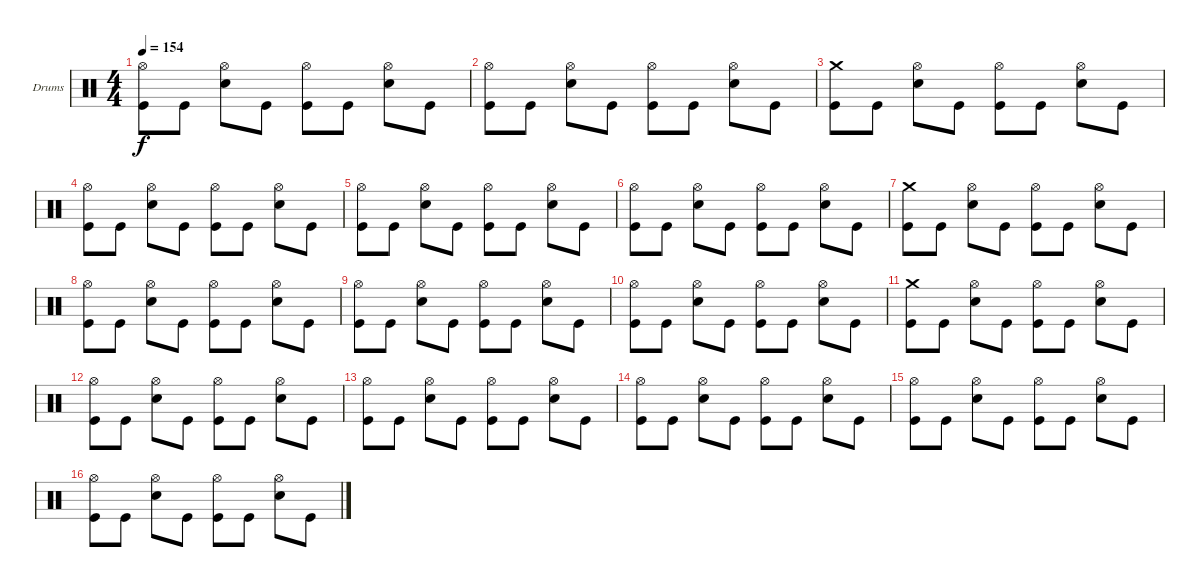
\defaultSystemsLayout 4
\bracketExtendMode groupsimilarinstruments
\firstSystemTrackNameOrientation horizontal
\otherSystemsTrackNameOrientation horizontal
\track ("Drumkit" "Drums") {instrument percussion}
\staff {score}
\articulation defaults
\ts (4 4)
\tempo 154
\clef neutral
\ks c
("Hi-Hat (open)" "Kick (hit)").8{dy f} "Kick (hit)".8 ("Hi-Hat (open)" "Snare (hit) 2").8 "Kick (hit)".8 ("Hi-Hat (open)" "Kick (hit)").8 "Kick (hit)".8 ("Hi-Hat (open)" "Snare (hit) 2").8 "Kick (hit)".8 |
("Hi-Hat (open)" "Kick (hit)").8 "Kick (hit)".8 ("Hi-Hat (open)" "Snare (hit) 2").8 "Kick (hit)".8 ("Hi-Hat (open)" "Kick (hit)").8 "Kick (hit)".8 ("Hi-Hat (open)" "Snare (hit) 2").8 "Kick (hit)".8 |
("Crash medium (hit)" "Kick (hit)").8 "Kick (hit)".8 ("Hi-Hat (open)" "Snare (hit) 2").8 "Kick (hit)".8 ("Hi-Hat (open)" "Kick (hit)").8 "Kick (hit)".8 ("Hi-Hat (open)" "Snare (hit) 2").8 "Kick (hit)".8 |
("Hi-Hat (open)" "Kick (hit)").8 "Kick (hit)".8 ("Hi-Hat (open)" "Snare (hit) 2").8 "Kick (hit)".8 ("Hi-Hat (open)" "Kick (hit)").8 "Kick (hit)".8 ("Hi-Hat (open)" "Snare (hit) 2").8 "Kick (hit)".8 |
("Hi-Hat (open)" "Kick (hit)").8 "Kick (hit)".8 ("Hi-Hat (open)" "Snare (hit) 2").8 "Kick (hit)".8 ("Hi-Hat (open)" "Kick (hit)").8 "Kick (hit)".8 ("Hi-Hat (open)" "Snare (hit) 2").8 "Kick (hit)".8 |
("Hi-Hat (open)" "Kick (hit)").8 "Kick (hit)".8 ("Hi-Hat (open)" "Snare (hit) 2").8 "Kick (hit)".8 ("Hi-Hat (open)" "Kick (hit)").8 "Kick (hit)".8 ("Hi-Hat (open)" "Snare (hit) 2").8 "Kick (hit)".8 |
("Crash medium (hit)" "Kick (hit)").8 "Kick (hit)".8 ("Hi-Hat (open)" "Snare (hit) 2").8 "Kick (hit)".8 ("Hi-Hat (open)" "Kick (hit)").8 "Kick (hit)".8 ("Hi-Hat (open)" "Snare (hit) 2").8 "Kick (hit)".8 |
("Hi-Hat (open)" "Kick (hit)").8 "Kick (hit)".8 ("Hi-Hat (open)" "Snare (hit) 2").8 "Kick (hit)".8 ("Hi-Hat (open)" "Kick (hit)").8 "Kick (hit)".8 ("Hi-Hat (open)" "Snare (hit) 2").8 "Kick (hit)".8 |
("Hi-Hat (open)" "Kick (hit)").8 "Kick (hit)".8 ("Hi-Hat (open)" "Snare (hit) 2").8 "Kick (hit)".8 ("Hi-Hat (open)" "Kick (hit)").8 "Kick (hit)".8 ("Hi-Hat (open)" "Snare (hit) 2").8 "Kick (hit)".8 |
("Hi-Hat (open)" "Kick (hit)").8 "Kick (hit)".8 ("Hi-Hat (open)" "Snare (hit) 2").8 "Kick (hit)".8 ("Hi-Hat (open)" "Kick (hit)").8 "Kick (hit)".8 ("Hi-Hat (open)" "Snare (hit) 2").8 "Kick (hit)".8 |
("Crash medium (hit)" "Kick (hit)").8 "Kick (hit)".8 ("Hi-Hat (open)" "Snare (hit) 2").8 "Kick (hit)".8 ("Hi-Hat (open)" "Kick (hit)").8 "Kick (hit)".8 ("Hi-Hat (open)" "Snare (hit) 2").8 "Kick (hit)".8 |
("Hi-Hat (open)" "Kick (hit)").8 "Kick (hit)".8 ("Hi-Hat (open)" "Snare (hit) 2").8 "Kick (hit)".8 ("Hi-Hat (open)" "Kick (hit)").8 "Kick (hit)".8 ("Hi-Hat (open)" "Snare (hit) 2").8 "Kick (hit)".8 |
("Hi-Hat (open)" "Kick (hit)").8 "Kick (hit)".8 ("Hi-Hat (open)" "Snare (hit) 2").8 "Kick (hit)".8 ("Hi-Hat (open)" "Kick (hit)").8 "Kick (hit)".8 ("Hi-Hat (open)" "Snare (hit) 2").8 "Kick (hit)".8 |
("Hi-Hat (open)" "Kick (hit)").8 "Kick (hit)".8 ("Hi-Hat (open)" "Snare (hit) 2").8 "Kick (hit)".8 ("Hi-Hat (open)" "Kick (hit)").8 "Kick (hit)".8 ("Hi-Hat (open)" "Snare (hit) 2").8 "Kick (hit)".8 |
("Hi-Hat (open)" "Kick (hit)").8 "Kick (hit)".8 ("Hi-Hat (open)" "Snare (hit) 2").8 "Kick (hit)".8 ("Hi-Hat (open)" "Kick (hit)").8 "Kick (hit)".8 ("Hi-Hat (open)" "Snare (hit) 2").8 "Kick (hit)".8 |
("Hi-Hat (open)" "Kick (hit)").8 "Kick (hit)".8 ("Hi-Hat (open)" "Snare (hit) 2").8 "Kick (hit)".8 ("Hi-Hat (open)" "Kick (hit)").8 "Kick (hit)".8 ("Hi-Hat (open)" "Snare (hit) 2").8 "Kick (hit)".8
